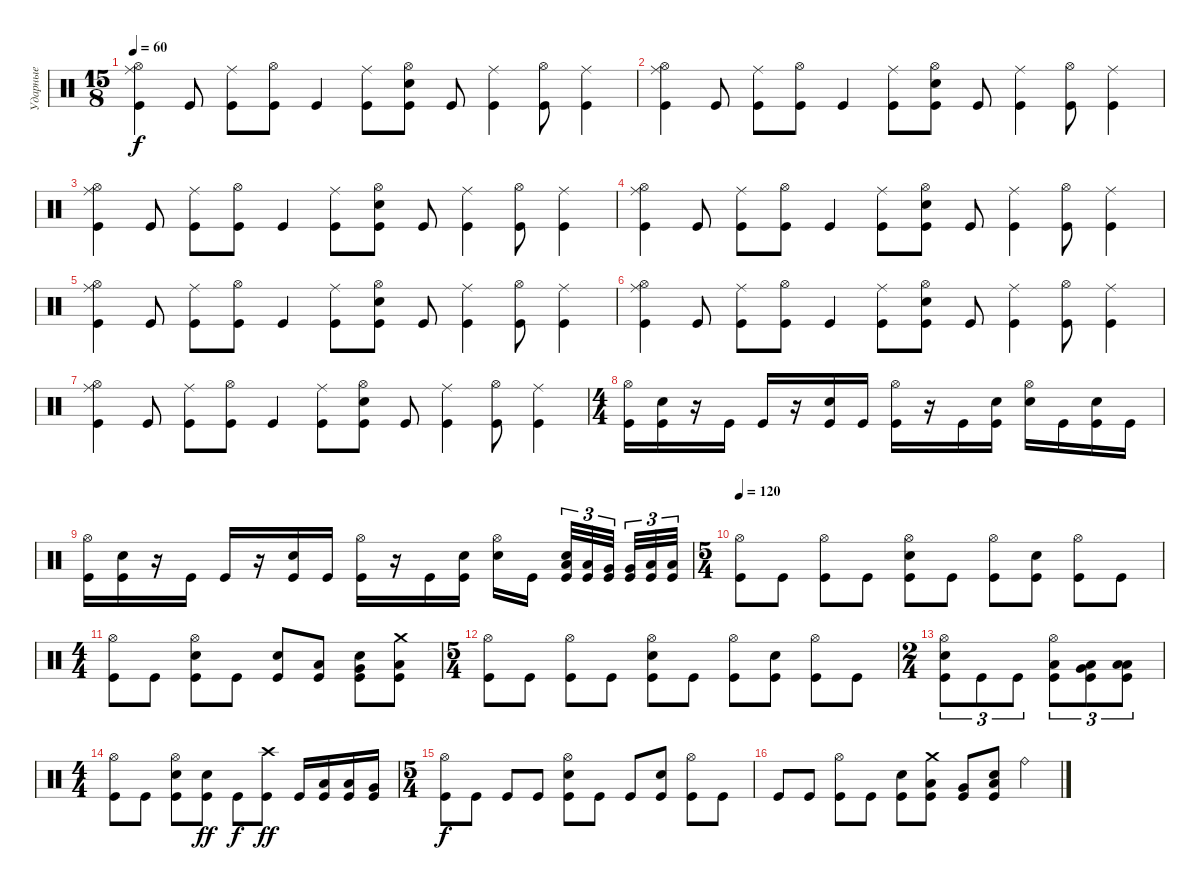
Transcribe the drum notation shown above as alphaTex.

\track ("Ударные" "Ударные") {instrument percussion}
\staff {score}
\articulation defaults
\ts (15 8)
\tempo 60
\clef neutral
\ks c
("Ride (middle)" "Hi-Hat (open)" "Kick (hit)").4{dy f} "Kick (hit)".8 ("Ride (middle)" "Kick (hit)").8 ("Hi-Hat (open)" "Kick (hit)").8 "Kick (hit)".4 ("Ride (middle)" "Kick (hit)").8 ("Hi-Hat (open)" "Snare (hit) 2" "Kick (hit)").8 "Kick (hit)".8 ("Ride (middle)" "Kick (hit)").4 ("Hi-Hat (open)" "Kick (hit)").8 ("Ride (middle)" "Kick (hit)").4 |
("Ride (middle)" "Hi-Hat (open)" "Kick (hit)").4 "Kick (hit)".8 ("Ride (middle)" "Kick (hit)").8 ("Hi-Hat (open)" "Kick (hit)").8 "Kick (hit)".4 ("Ride (middle)" "Kick (hit)").8 ("Hi-Hat (open)" "Snare (hit) 2" "Kick (hit)").8 "Kick (hit)".8 ("Ride (middle)" "Kick (hit)").4 ("Hi-Hat (open)" "Kick (hit)").8 ("Ride (middle)" "Kick (hit)").4 |
("Ride (middle)" "Hi-Hat (open)" "Kick (hit)").4 "Kick (hit)".8 ("Ride (middle)" "Kick (hit)").8 ("Hi-Hat (open)" "Kick (hit)").8 "Kick (hit)".4 ("Ride (middle)" "Kick (hit)").8 ("Hi-Hat (open)" "Snare (hit) 2" "Kick (hit)").8 "Kick (hit)".8 ("Ride (middle)" "Kick (hit)").4 ("Hi-Hat (open)" "Kick (hit)").8 ("Ride (middle)" "Kick (hit)").4 |
("Ride (middle)" "Hi-Hat (open)" "Kick (hit)").4 "Kick (hit)".8 ("Ride (middle)" "Kick (hit)").8 ("Hi-Hat (open)" "Kick (hit)").8 "Kick (hit)".4 ("Ride (middle)" "Kick (hit)").8 ("Hi-Hat (open)" "Snare (hit) 2" "Kick (hit)").8 "Kick (hit)".8 ("Ride (middle)" "Kick (hit)").4 ("Hi-Hat (open)" "Kick (hit)").8 ("Ride (middle)" "Kick (hit)").4 |
("Ride (middle)" "Hi-Hat (open)" "Kick (hit)").4 "Kick (hit)".8 ("Ride (middle)" "Kick (hit)").8 ("Hi-Hat (open)" "Kick (hit)").8 "Kick (hit)".4 ("Ride (middle)" "Kick (hit)").8 ("Hi-Hat (open)" "Snare (hit) 2" "Kick (hit)").8 "Kick (hit)".8 ("Ride (middle)" "Kick (hit)").4 ("Hi-Hat (open)" "Kick (hit)").8 ("Ride (middle)" "Kick (hit)").4 |
("Ride (middle)" "Hi-Hat (open)" "Kick (hit)").4 "Kick (hit)".8 ("Ride (middle)" "Kick (hit)").8 ("Hi-Hat (open)" "Kick (hit)").8 "Kick (hit)".4 ("Ride (middle)" "Kick (hit)").8 ("Hi-Hat (open)" "Snare (hit) 2" "Kick (hit)").8 "Kick (hit)".8 ("Ride (middle)" "Kick (hit)").4 ("Hi-Hat (open)" "Kick (hit)").8 ("Ride (middle)" "Kick (hit)").4 |
("Ride (middle)" "Hi-Hat (open)" "Kick (hit)").4 "Kick (hit)".8 ("Ride (middle)" "Kick (hit)").8 ("Hi-Hat (open)" "Kick (hit)").8 "Kick (hit)".4 ("Ride (middle)" "Kick (hit)").8 ("Hi-Hat (open)" "Snare (hit) 2" "Kick (hit)").8 "Kick (hit)".8 ("Ride (middle)" "Kick (hit)").4 ("Hi-Hat (open)" "Kick (hit)").8 ("Ride (middle)" "Kick (hit)").4 |
\ts (4 4)
("Kick (hit)" "Hi-Hat (open)").16 ("Kick (hit)" "Snare (hit) 2").16 r.16 "Kick (hit)".16 "Kick (hit)".16 r.16 ("Kick (hit)" "Snare (hit) 2").16 "Kick (hit)".16 ("Kick (hit)" "Hi-Hat (open)").16 r.16 "Kick (hit)".16 ("Kick (hit)" "Snare (hit) 2").16 ("Snare (hit) 2" "Hi-Hat (open)").16 "Kick (hit)".16 ("Kick (hit)" "Snare (hit) 2").16 "Kick (hit)".16 |
("Kick (hit)" "Hi-Hat (open)").16 ("Kick (hit)" "Snare (hit) 2").16 r.16 "Kick (hit)".16 "Kick (hit)".16 r.16 ("Kick (hit)" "Snare (hit) 2").16 "Kick (hit)".16 ("Kick (hit)" "Hi-Hat (open)").16 r.16 "Kick (hit)".16 ("Kick (hit)" "Snare (hit) 2").16 ("Snare (hit) 2" "Hi-Hat (open)").16 "Kick (hit)".16{beam splitsecondary} ("Kick (hit)" "Low Tom (hit)" "Snare (hit) 2").32{tu (3 2)} ("Kick (hit)" "Low Tom (hit)").32{tu (3 2)} ("Kick (hit)" "Very Low Tom (hit)").32{tu (3 2) beam splitsecondary} ("Kick (hit)" "Very Low Tom (hit)").32{tu (3 2)} ("Kick (hit)" "Low Floor Tom (hit)").32{tu (3 2)} ("Kick (hit)" "Low Floor Tom (hit)").32{tu (3 2)} |
\ts (5 4)
\tempo 120
("Kick (hit)" "Hi-Hat (open)").8 "Kick (hit)".8 ("Kick (hit)" "Hi-Hat (open)").8 "Kick (hit)".8 ("Kick (hit)" "Hi-Hat (open)" "Snare (hit) 2").8 "Kick (hit)".8 ("Kick (hit)" "Hi-Hat (open)").8 ("Kick (hit)" "Snare (hit) 2").8 ("Kick (hit)" "Hi-Hat (open)").8 "Kick (hit)".8 |
\ts (4 4)
("Kick (hit)" "Hi-Hat (open)").8 "Kick (hit)".8 ("Kick (hit)" "Hi-Hat (open)" "Snare (hit) 2").8 "Kick (hit)".8 ("Kick (hit)" "Snare (hit) 2").8 ("Kick (hit)" "Low Tom (hit)").8 ("Kick (hit)" "Very Low Tom (hit)" "Snare (hit) 2").8 ("Kick (hit)" "Low Floor Tom (hit)" "Crash medium (hit)").8 |
\ts (5 4)
("Kick (hit)" "Hi-Hat (open)").8 "Kick (hit)".8 ("Kick (hit)" "Hi-Hat (open)").8 "Kick (hit)".8 ("Kick (hit)" "Hi-Hat (open)" "Snare (hit) 2").8 "Kick (hit)".8 ("Kick (hit)" "Hi-Hat (open)").8 ("Kick (hit)" "Snare (hit) 2").8 ("Kick (hit)" "Hi-Hat (open)").8 "Kick (hit)".8 |
\ts (2 4)
("Kick (hit)" "Snare (hit) 2" "Hi-Hat (open)").8{tu (3 2)} "Kick (hit)".8{tu (3 2)} "Kick (hit)".8{tu (3 2)} ("Kick (hit)" "Low Floor Tom (hit)" "Hi-Hat (open)").8{tu (3 2)} ("Kick (hit)" "Very Low Tom (hit)" "Low Floor Tom (hit)").8{tu (3 2)} ("Kick (hit)" "Low Tom (hit)" "Low Floor Tom (hit)").8{tu (3 2)} |
\ts (4 4)
("Kick (hit)" "Hi-Hat (open)").8 "Kick (hit)".8 ("Kick (hit)" "Hi-Hat (open)" "Snare (hit) 2").8 ("Kick (hit)" "Snare (hit) 2").8{dy ff} "Kick (hit)".8{dy f} ("Kick (hit)" "Crash high (hit)").8{dy ff} "Kick (hit)".16 ("Kick (hit)" "Low Tom (hit)").16 ("Kick (hit)" "Low Tom (hit)").16 ("Kick (hit)" "Very Low Tom (hit)").16 |
\ts (5 4)
("Kick (hit)" "Hi-Hat (open)").8{dy f} "Kick (hit)".8 "Kick (hit)".8 "Kick (hit)".8 ("Kick (hit)" "Snare (hit) 2" "Hi-Hat (open)").8 "Kick (hit)".8 "Kick (hit)".8 ("Kick (hit)" "Snare (hit) 2").8 ("Kick (hit)" "Hi-Hat (open)").8 "Kick (hit)".8 |
"Kick (hit)".8 "Kick (hit)".8 ("Kick (hit)" "Hi-Hat (open)").8 "Kick (hit)".8 ("Kick (hit)" "Snare (hit) 2").8 ("Kick (hit)" "Low Tom (hit)" "Crash medium (hit)").8 ("Kick (hit)" "Very Low Tom (hit)").8 ("Kick (hit)" "Low Floor Tom (hit)" "Snare (hit) 2").8 "Ride (bell)".4
